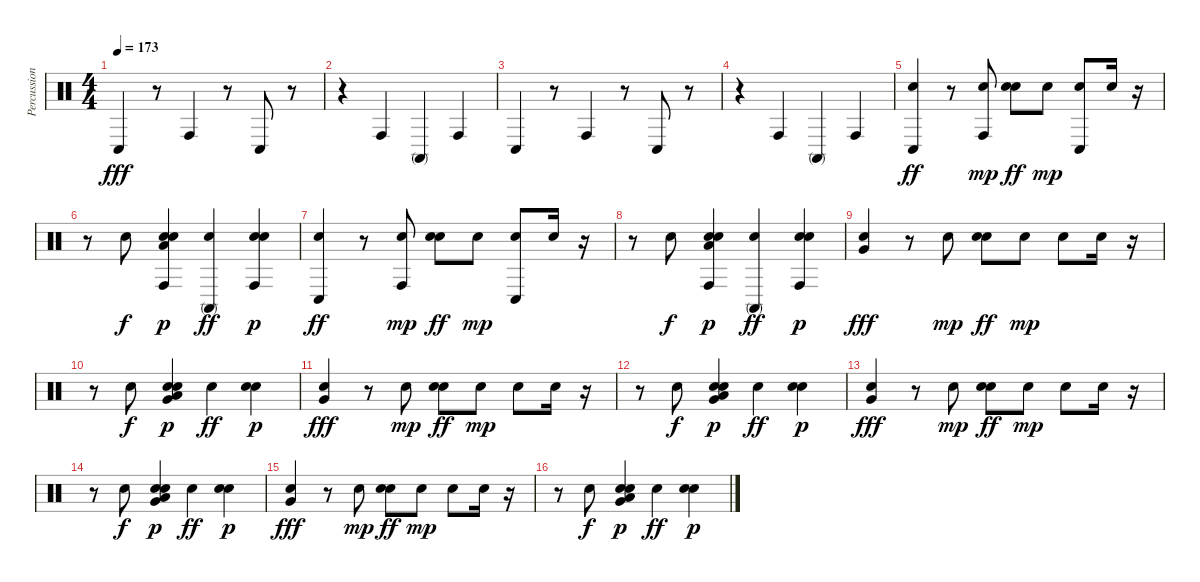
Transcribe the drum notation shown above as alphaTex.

\track ("Percussion" "Percussion") {instrument percussion}
\staff {score}
\articulation defaults
\ts (4 4)
\tempo 173
\clef neutral
\ks c "Conga low (hit)".4{dy fff}
r.8 "Conga high (hit)".4 r.8 "Conga low (hit)".8 r.8 |
r.4 "Conga high (hit)".4 "Conga high (mute)".4 "Conga high (hit)".4 |
"Conga low (hit)".4 r.8 "Conga high (hit)".4 r.8 "Conga low (hit)".8 r.8 |
r.4 "Conga high (hit)".4 "Conga high (mute)".4 "Conga high (hit)".4 |
("Conga low (hit)" "Hand Clap (hit)").4{dy ff} r.8 ("Conga high (hit)" "Hand Clap (hit)").8{dy mp} ("Snare (hit) 2" "Hand Clap (hit)").8{dy ff} "Hand Clap (hit)".8{dy mp} ("Conga low (hit)" "Hand Clap (hit)").8 "Hand Clap (hit)".16 r.16 |
r.8 "Hand Clap (hit)".8{dy f} ("Conga high (hit)" "Hand Clap (hit)" "Snare (hit) 2" "Low Floor Tom (hit)").4{dy p} ("Conga high (mute)" "Hand Clap (hit)").4{dy ff} ("Conga high (hit)" "Snare (hit) 2" "Hand Clap (hit)").4{dy p} |
("Conga low (hit)" "Hand Clap (hit)").4{dy ff} r.8 ("Conga high (hit)" "Hand Clap (hit)").8{dy mp} ("Snare (hit) 2" "Hand Clap (hit)").8{dy ff} "Hand Clap (hit)".8{dy mp} ("Conga low (hit)" "Hand Clap (hit)").8 "Hand Clap (hit)".16 r.16 |
r.8 "Hand Clap (hit)".8{dy f} ("Conga high (hit)" "Hand Clap (hit)" "Snare (hit) 2" "Low Floor Tom (hit)").4{dy p} ("Conga high (mute)" "Hand Clap (hit)").4{dy ff} ("Conga high (hit)" "Snare (hit) 2" "Hand Clap (hit)").4{dy p} |
("Hand Clap (hit)" "Very Low Tom (hit)").4{dy fff} r.8 "Hand Clap (hit)".8{dy mp} ("Snare (hit) 2" "Hand Clap (hit)").8{dy ff} "Hand Clap (hit)".8{dy mp} "Hand Clap (hit)".8 "Hand Clap (hit)".16 r.16 |
r.8 "Hand Clap (hit)".8{dy f} ("Very Low Tom (hit)" "Hand Clap (hit)" "Snare (hit) 2" "Low Floor Tom (hit)").4{dy p} "Hand Clap (hit)".4{dy ff} ("Snare (hit) 2" "Hand Clap (hit)").4{dy p} |
("Hand Clap (hit)" "Very Low Tom (hit)").4{dy fff} r.8 "Hand Clap (hit)".8{dy mp} ("Snare (hit) 2" "Hand Clap (hit)").8{dy ff} "Hand Clap (hit)".8{dy mp} "Hand Clap (hit)".8 "Hand Clap (hit)".16 r.16 |
r.8 "Hand Clap (hit)".8{dy f} ("Very Low Tom (hit)" "Hand Clap (hit)" "Snare (hit) 2" "Low Floor Tom (hit)").4{dy p} "Hand Clap (hit)".4{dy ff} ("Snare (hit) 2" "Hand Clap (hit)").4{dy p} |
("Hand Clap (hit)" "Very Low Tom (hit)").4{dy fff} r.8 "Hand Clap (hit)".8{dy mp} ("Snare (hit) 2" "Hand Clap (hit)").8{dy ff} "Hand Clap (hit)".8{dy mp} "Hand Clap (hit)".8 "Hand Clap (hit)".16 r.16 |
r.8 "Hand Clap (hit)".8{dy f} ("Very Low Tom (hit)" "Hand Clap (hit)" "Snare (hit) 2" "Low Floor Tom (hit)").4{dy p} "Hand Clap (hit)".4{dy ff} ("Snare (hit) 2" "Hand Clap (hit)").4{dy p} |
("Hand Clap (hit)" "Very Low Tom (hit)").4{dy fff} r.8 "Hand Clap (hit)".8{dy mp} ("Snare (hit) 2" "Hand Clap (hit)").8{dy ff} "Hand Clap (hit)".8{dy mp} "Hand Clap (hit)".8 "Hand Clap (hit)".16 r.16 |
r.8 "Hand Clap (hit)".8{dy f} ("Very Low Tom (hit)" "Hand Clap (hit)" "Snare (hit) 2" "Low Floor Tom (hit)").4{dy p} "Hand Clap (hit)".4{dy ff} ("Snare (hit) 2" "Hand Clap (hit)").4{dy p}
